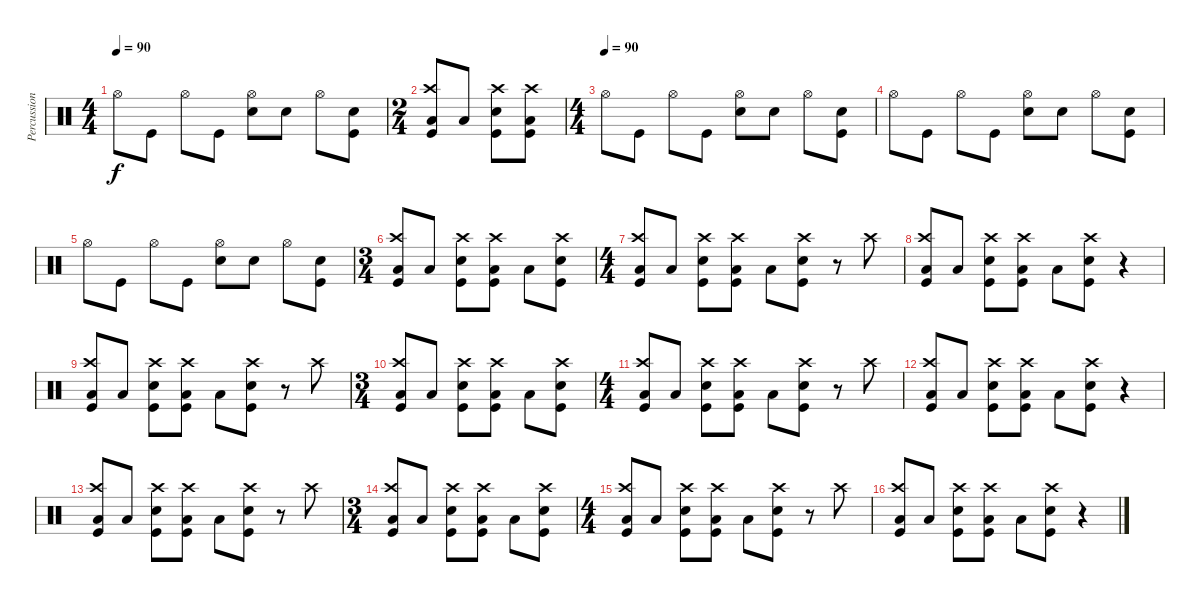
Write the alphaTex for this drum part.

\track ("Percussion" "Percussion") {instrument percussion}
\staff {score}
\articulation defaults
\ts (4 4)
\tempo 90
\clef neutral
\ks c "Hi-Hat (open)".8{dy f} "Kick (hit)".8 "Hi-Hat (open)".8 "Kick (hit)".8
("Hi-Hat (open)" "Snare (hit) 2").8 "Snare (hit) 2".8 "Hi-Hat (open)".8 ("Kick (hit)" "Snare (hit) 2").8 |
\ts (2 4)
("Crash high (hit)" "Low Floor Tom (hit)" "Kick (hit)").8 "Low Floor Tom (hit)".8 ("Crash high (hit)" "Snare (hit) 2" "Kick (hit)").8 ("Crash high (hit)" "Low Floor Tom (hit)" "Kick (hit)").8 |
\ts (4 4)
\tempo (90)
"Hi-Hat (open)".8 "Kick (hit)".8 "Hi-Hat (open)".8 "Kick (hit)".8 ("Hi-Hat (open)" "Snare (hit) 2").8 "Snare (hit) 2".8 "Hi-Hat (open)".8 ("Kick (hit)" "Snare (hit) 2").8 |
"Hi-Hat (open)".8 "Kick (hit)".8 "Hi-Hat (open)".8 "Kick (hit)".8 ("Hi-Hat (open)" "Snare (hit) 2").8 "Snare (hit) 2".8 "Hi-Hat (open)".8 ("Kick (hit)" "Snare (hit) 2").8 |
"Hi-Hat (open)".8 "Kick (hit)".8 "Hi-Hat (open)".8 "Kick (hit)".8 ("Hi-Hat (open)" "Snare (hit) 2").8 "Snare (hit) 2".8 "Hi-Hat (open)".8 ("Kick (hit)" "Snare (hit) 2").8 |
\ts (3 4)
("Crash high (hit)" "Low Floor Tom (hit)" "Kick (hit)").8 "Low Floor Tom (hit)".8 ("Crash high (hit)" "Snare (hit) 2" "Kick (hit)").8 ("Crash high (hit)" "Low Floor Tom (hit)" "Kick (hit)").8 "Low Floor Tom (hit)".8 ("Crash high (hit)" "Snare (hit) 2" "Kick (hit)").8 |
\ts (4 4)
("Crash high (hit)" "Low Floor Tom (hit)" "Kick (hit)").8 "Low Floor Tom (hit)".8 ("Crash high (hit)" "Snare (hit) 2" "Kick (hit)").8 ("Crash high (hit)" "Low Floor Tom (hit)" "Kick (hit)").8 "Low Floor Tom (hit)".8 ("Crash high (hit)" "Snare (hit) 2" "Kick (hit)").8 r.8 "Crash high (hit)".8 |
("Crash high (hit)" "Low Floor Tom (hit)" "Kick (hit)").8 "Low Floor Tom (hit)".8 ("Crash high (hit)" "Snare (hit) 2" "Kick (hit)").8 ("Crash high (hit)" "Low Floor Tom (hit)" "Kick (hit)").8 "Low Floor Tom (hit)".8 ("Crash high (hit)" "Snare (hit) 2" "Kick (hit)").8 r.4 |
("Crash high (hit)" "Low Floor Tom (hit)" "Kick (hit)").8 "Low Floor Tom (hit)".8 ("Crash high (hit)" "Snare (hit) 2" "Kick (hit)").8 ("Crash high (hit)" "Low Floor Tom (hit)" "Kick (hit)").8 "Low Floor Tom (hit)".8 ("Crash high (hit)" "Snare (hit) 2" "Kick (hit)").8 r.8 "Crash high (hit)".8 |
\ts (3 4)
("Crash high (hit)" "Low Floor Tom (hit)" "Kick (hit)").8 "Low Floor Tom (hit)".8 ("Crash high (hit)" "Snare (hit) 2" "Kick (hit)").8 ("Crash high (hit)" "Low Floor Tom (hit)" "Kick (hit)").8 "Low Floor Tom (hit)".8 ("Crash high (hit)" "Snare (hit) 2" "Kick (hit)").8 |
\ts (4 4)
("Crash high (hit)" "Low Floor Tom (hit)" "Kick (hit)").8 "Low Floor Tom (hit)".8 ("Crash high (hit)" "Snare (hit) 2" "Kick (hit)").8 ("Crash high (hit)" "Low Floor Tom (hit)" "Kick (hit)").8 "Low Floor Tom (hit)".8 ("Crash high (hit)" "Snare (hit) 2" "Kick (hit)").8 r.8 "Crash high (hit)".8 |
("Crash high (hit)" "Low Floor Tom (hit)" "Kick (hit)").8 "Low Floor Tom (hit)".8 ("Crash high (hit)" "Snare (hit) 2" "Kick (hit)").8 ("Crash high (hit)" "Low Floor Tom (hit)" "Kick (hit)").8 "Low Floor Tom (hit)".8 ("Crash high (hit)" "Snare (hit) 2" "Kick (hit)").8 r.4 |
("Crash high (hit)" "Low Floor Tom (hit)" "Kick (hit)").8 "Low Floor Tom (hit)".8 ("Crash high (hit)" "Snare (hit) 2" "Kick (hit)").8 ("Crash high (hit)" "Low Floor Tom (hit)" "Kick (hit)").8 "Low Floor Tom (hit)".8 ("Crash high (hit)" "Snare (hit) 2" "Kick (hit)").8 r.8 "Crash high (hit)".8 |
\ts (3 4)
("Crash high (hit)" "Low Floor Tom (hit)" "Kick (hit)").8 "Low Floor Tom (hit)".8 ("Crash high (hit)" "Snare (hit) 2" "Kick (hit)").8 ("Crash high (hit)" "Low Floor Tom (hit)" "Kick (hit)").8 "Low Floor Tom (hit)".8 ("Crash high (hit)" "Snare (hit) 2" "Kick (hit)").8 |
\ts (4 4)
("Crash high (hit)" "Low Floor Tom (hit)" "Kick (hit)").8 "Low Floor Tom (hit)".8 ("Crash high (hit)" "Snare (hit) 2" "Kick (hit)").8 ("Crash high (hit)" "Low Floor Tom (hit)" "Kick (hit)").8 "Low Floor Tom (hit)".8 ("Crash high (hit)" "Snare (hit) 2" "Kick (hit)").8 r.8 "Crash high (hit)".8 |
("Crash high (hit)" "Low Floor Tom (hit)" "Kick (hit)").8 "Low Floor Tom (hit)".8 ("Crash high (hit)" "Snare (hit) 2" "Kick (hit)").8 ("Crash high (hit)" "Low Floor Tom (hit)" "Kick (hit)").8 "Low Floor Tom (hit)".8 ("Crash high (hit)" "Snare (hit) 2" "Kick (hit)").8 r.4
